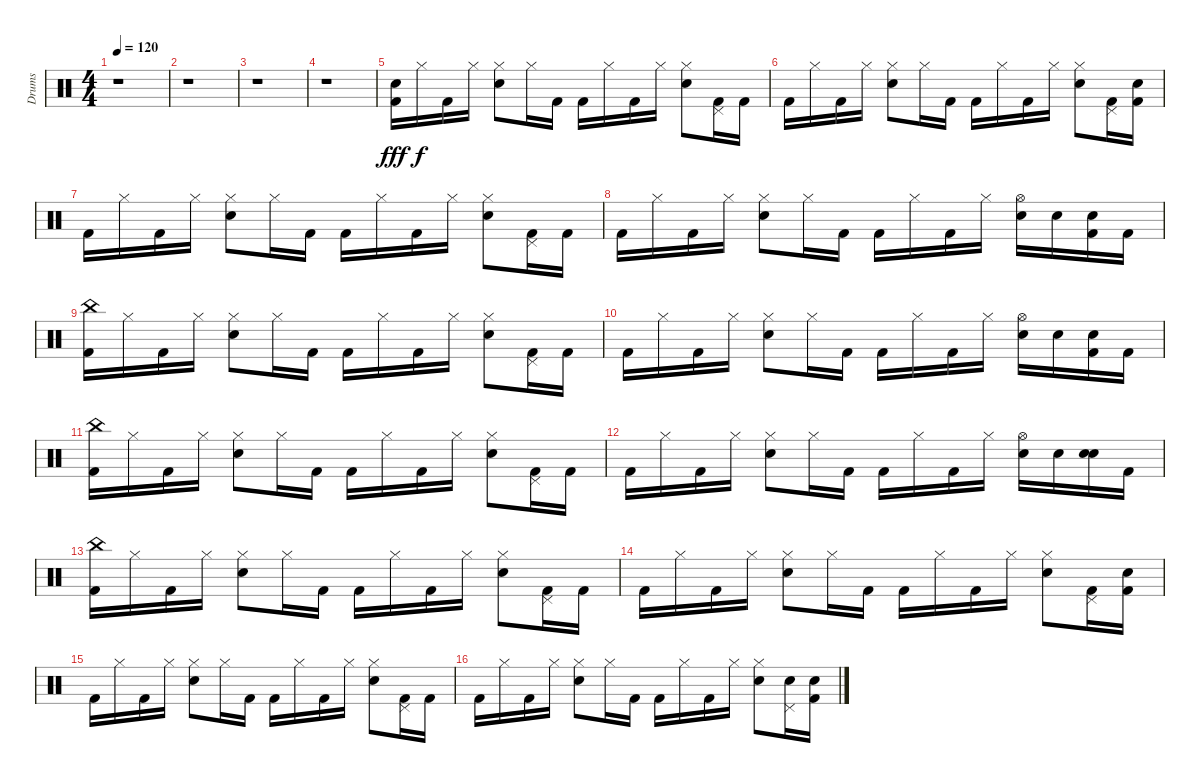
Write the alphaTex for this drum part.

\track ("Drums" "Drums") {instrument percussion}
\staff {score}
\articulation defaults
\ts (4 4)
\tempo 120
\clef neutral
\ks c
r.1{dy fff} |
r.1 |
r.1 |
r.1 |
("Snare (hit) 2" "Kick (hit) 2").16 "Hi-Hat (closed)".16{dy f} "Kick (hit) 2".16 "Hi-Hat (closed)".16 ("Hi-Hat (closed)" "Snare (hit) 2").8 "Hi-Hat (closed)".16 "Kick (hit) 2".16 "Kick (hit) 2".16 "Hi-Hat (closed)".16 "Kick (hit) 2".16 "Hi-Hat (closed)".16 ("Hi-Hat (closed)" "Snare (hit) 2").8 ("Pedal Hi-Hat (hit)" "Kick (hit) 2").16 "Kick (hit) 2".16 |
"Kick (hit) 2".16 "Hi-Hat (closed)".16 "Kick (hit) 2".16 "Hi-Hat (closed)".16 ("Hi-Hat (closed)" "Snare (hit) 2").8 "Hi-Hat (closed)".16 "Kick (hit) 2".16 "Kick (hit) 2".16 "Hi-Hat (closed)".16 "Kick (hit) 2".16 "Hi-Hat (closed)".16 ("Hi-Hat (closed)" "Snare (hit) 2").8 ("Pedal Hi-Hat (hit)" "Kick (hit) 2").16 ("Snare (hit) 2" "Kick (hit) 2").16 |
"Kick (hit) 2".16 "Hi-Hat (closed)".16 "Kick (hit) 2".16 "Hi-Hat (closed)".16 ("Hi-Hat (closed)" "Snare (hit) 2").8 "Hi-Hat (closed)".16 "Kick (hit) 2".16 "Kick (hit) 2".16 "Hi-Hat (closed)".16 "Kick (hit) 2".16 "Hi-Hat (closed)".16 ("Hi-Hat (closed)" "Snare (hit) 2").8 ("Pedal Hi-Hat (hit)" "Kick (hit) 2").16 "Kick (hit) 2".16 |
"Kick (hit) 2".16 "Hi-Hat (closed)".16 "Kick (hit) 2".16 "Hi-Hat (closed)".16 ("Hi-Hat (closed)" "Snare (hit) 2").8 "Hi-Hat (closed)".16 "Kick (hit) 2".16 "Kick (hit) 2".16 "Hi-Hat (closed)".16 "Kick (hit) 2".16 "Hi-Hat (closed)".16 ("Hi-Hat (open)" "Electric Snare (hit)").16 "Electric Snare (hit)".16 ("Snare (hit) 2" "Kick (hit) 2").16 "Kick (hit) 2".16 |
("China (hit)" "Kick (hit) 2").16 "Hi-Hat (closed)".16 "Kick (hit) 2".16 "Hi-Hat (closed)".16 ("Hi-Hat (closed)" "Snare (hit) 2").8 "Hi-Hat (closed)".16 "Kick (hit) 2".16 "Kick (hit) 2".16 "Hi-Hat (closed)".16 "Kick (hit) 2".16 "Hi-Hat (closed)".16 ("Hi-Hat (closed)" "Snare (hit) 2").8 ("Pedal Hi-Hat (hit)" "Kick (hit) 2").16 "Kick (hit) 2".16 |
"Kick (hit) 2".16 "Hi-Hat (closed)".16 "Kick (hit) 2".16 "Hi-Hat (closed)".16 ("Hi-Hat (closed)" "Snare (hit) 2").8 "Hi-Hat (closed)".16 "Kick (hit) 2".16 "Kick (hit) 2".16 "Hi-Hat (closed)".16 "Kick (hit) 2".16 "Hi-Hat (closed)".16 ("Hi-Hat (open)" "Electric Snare (hit)").16 "Electric Snare (hit)".16 ("Snare (hit) 2" "Kick (hit) 2").16 "Kick (hit) 2".16 |
("China (hit)" "Kick (hit) 2").16 "Hi-Hat (closed)".16 "Kick (hit) 2".16 "Hi-Hat (closed)".16 ("Hi-Hat (closed)" "Snare (hit) 2").8 "Hi-Hat (closed)".16 "Kick (hit) 2".16 "Kick (hit) 2".16 "Hi-Hat (closed)".16 "Kick (hit) 2".16 "Hi-Hat (closed)".16 ("Hi-Hat (closed)" "Snare (hit) 2").8 ("Pedal Hi-Hat (hit)" "Kick (hit) 2").16 "Kick (hit) 2".16 |
"Kick (hit) 2".16 "Hi-Hat (closed)".16 "Kick (hit) 2".16 "Hi-Hat (closed)".16 ("Hi-Hat (closed)" "Snare (hit) 2").8 "Hi-Hat (closed)".16 "Kick (hit) 2".16 "Kick (hit) 2".16 "Hi-Hat (closed)".16 "Kick (hit) 2".16 "Hi-Hat (closed)".16 ("Hi-Hat (open)" "Electric Snare (hit)").16 "Electric Snare (hit)".16 ("Electric Snare (hit)" "Snare (hit) 2").16 "Kick (hit) 2".16 |
("China (hit)" "Kick (hit) 2").16 "Hi-Hat (closed)".16 "Kick (hit) 2".16 "Hi-Hat (closed)".16 ("Hi-Hat (closed)" "Snare (hit) 2").8 "Hi-Hat (closed)".16 "Kick (hit) 2".16 "Kick (hit) 2".16 "Hi-Hat (closed)".16 "Kick (hit) 2".16 "Hi-Hat (closed)".16 ("Hi-Hat (closed)" "Snare (hit) 2").8 ("Pedal Hi-Hat (hit)" "Kick (hit) 2").16 "Kick (hit) 2".16 |
"Kick (hit) 2".16 "Hi-Hat (closed)".16 "Kick (hit) 2".16 "Hi-Hat (closed)".16 ("Hi-Hat (closed)" "Snare (hit) 2").8 "Hi-Hat (closed)".16 "Kick (hit) 2".16 "Kick (hit) 2".16 "Hi-Hat (closed)".16 "Kick (hit) 2".16 "Hi-Hat (closed)".16 ("Hi-Hat (closed)" "Snare (hit) 2").8 ("Pedal Hi-Hat (hit)" "Kick (hit) 2").16 ("Snare (hit) 2" "Kick (hit) 2").16 |
"Kick (hit) 2".16 "Hi-Hat (closed)".16 "Kick (hit) 2".16 "Hi-Hat (closed)".16 ("Hi-Hat (closed)" "Snare (hit) 2").8 "Hi-Hat (closed)".16 "Kick (hit) 2".16 "Kick (hit) 2".16 "Hi-Hat (closed)".16 "Kick (hit) 2".16 "Hi-Hat (closed)".16 ("Hi-Hat (closed)" "Snare (hit) 2").8 ("Pedal Hi-Hat (hit)" "Kick (hit) 2").16 "Kick (hit) 2".16 |
"Kick (hit) 2".16 "Hi-Hat (closed)".16 "Kick (hit) 2".16 "Hi-Hat (closed)".16 ("Hi-Hat (closed)" "Snare (hit) 2").8 "Hi-Hat (closed)".16 "Kick (hit) 2".16 "Kick (hit) 2".16 "Hi-Hat (closed)".16 "Kick (hit) 2".16 "Hi-Hat (closed)".16 ("Hi-Hat (closed)" "Snare (hit) 2").8 ("Electric Snare (hit)" "Pedal Hi-Hat (hit)").16 ("Electric Snare (hit)" "Kick (hit) 2").16
